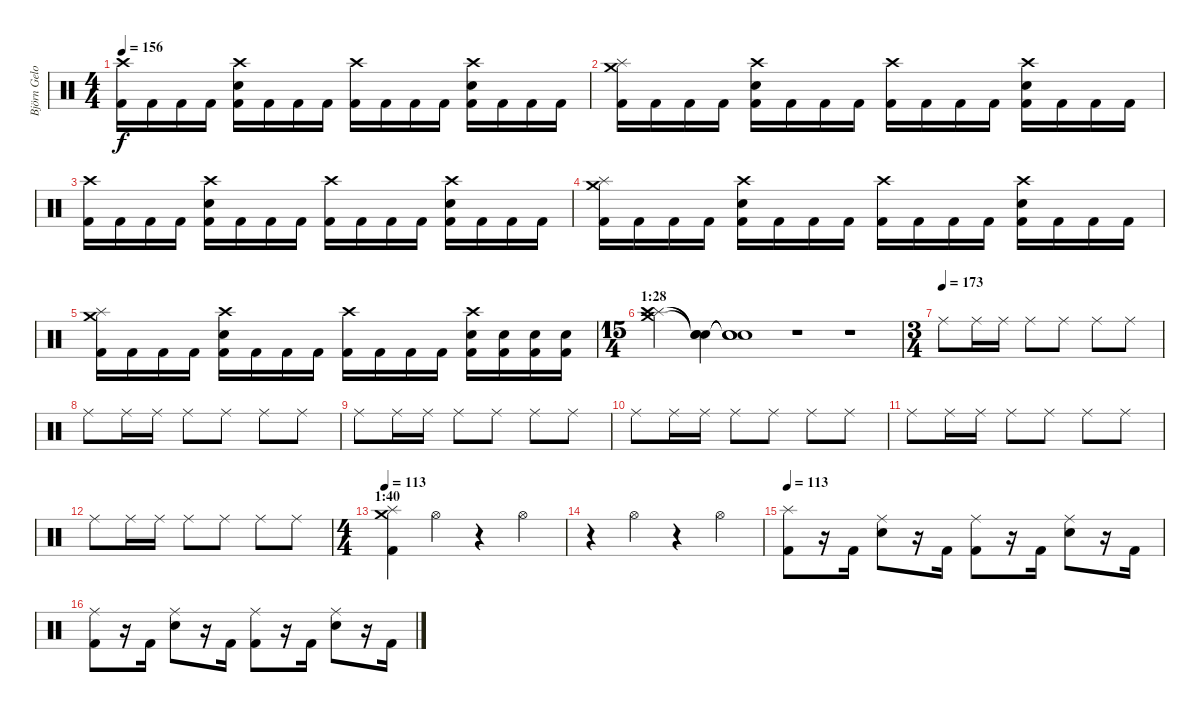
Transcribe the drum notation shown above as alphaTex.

\track ("Björn Gelotte" "Björn Gelo") {instrument percussion}
\staff {score}
\articulation defaults
\ts (4 4)
\tempo 156
\clef neutral
\ks c
("Crash high (hit)" "Kick (hit) 2").16{dy f} "Kick (hit) 2".16 "Kick (hit) 2".16 "Kick (hit) 2".16 ("Crash high (hit)" "Electric Snare (hit)" "Kick (hit) 2").16 "Kick (hit) 2".16 "Kick (hit) 2".16 "Kick (hit) 2".16 ("Crash high (hit)" "Kick (hit) 2").16 "Kick (hit) 2".16 "Kick (hit) 2".16 "Kick (hit) 2".16 ("Crash high (hit)" "Electric Snare (hit)" "Kick (hit) 2").16 "Kick (hit) 2".16 "Kick (hit) 2".16 "Kick (hit) 2".16 |
("Crash medium (hit)" "Splash (hit)" "Kick (hit) 2").16 "Kick (hit) 2".16 "Kick (hit) 2".16 "Kick (hit) 2".16 ("Crash high (hit)" "Electric Snare (hit)" "Kick (hit) 2").16 "Kick (hit) 2".16 "Kick (hit) 2".16 "Kick (hit) 2".16 ("Crash high (hit)" "Kick (hit) 2").16 "Kick (hit) 2".16 "Kick (hit) 2".16 "Kick (hit) 2".16 ("Crash high (hit)" "Electric Snare (hit)" "Kick (hit) 2").16 "Kick (hit) 2".16 "Kick (hit) 2".16 "Kick (hit) 2".16 |
("Crash high (hit)" "Kick (hit) 2").16 "Kick (hit) 2".16 "Kick (hit) 2".16 "Kick (hit) 2".16 ("Crash high (hit)" "Electric Snare (hit)" "Kick (hit) 2").16 "Kick (hit) 2".16 "Kick (hit) 2".16 "Kick (hit) 2".16 ("Crash high (hit)" "Kick (hit) 2").16 "Kick (hit) 2".16 "Kick (hit) 2".16 "Kick (hit) 2".16 ("Crash high (hit)" "Electric Snare (hit)" "Kick (hit) 2").16 "Kick (hit) 2".16 "Kick (hit) 2".16 "Kick (hit) 2".16 |
("Crash medium (hit)" "Splash (hit)" "Kick (hit) 2").16 "Kick (hit) 2".16 "Kick (hit) 2".16 "Kick (hit) 2".16 ("Crash high (hit)" "Electric Snare (hit)" "Kick (hit) 2").16 "Kick (hit) 2".16 "Kick (hit) 2".16 "Kick (hit) 2".16 ("Crash high (hit)" "Kick (hit) 2").16 "Kick (hit) 2".16 "Kick (hit) 2".16 "Kick (hit) 2".16 ("Crash high (hit)" "Electric Snare (hit)" "Kick (hit) 2").16 "Kick (hit) 2".16 "Kick (hit) 2".16 "Kick (hit) 2".16 |
("Crash medium (hit)" "Splash (hit)" "Kick (hit) 2").16 "Kick (hit) 2".16 "Kick (hit) 2".16 "Kick (hit) 2".16 ("Crash high (hit)" "Electric Snare (hit)" "Kick (hit) 2").16 "Kick (hit) 2".16 "Kick (hit) 2".16 "Kick (hit) 2".16 ("Crash high (hit)" "Kick (hit) 2").16 "Kick (hit) 2".16 "Kick (hit) 2".16 "Kick (hit) 2".16 ("Crash high (hit)" "Electric Snare (hit)" "Kick (hit) 2").16 ("Electric Snare (hit)" "Kick (hit) 2").16 ("Electric Snare (hit)" "Kick (hit) 2").16 ("Electric Snare (hit)" "Kick (hit) 2").16 |
\ts (15 4)
\section ("" "1:28")
("Splash (hit)" "Crash medium (hit)" "Crash high (hit)").2 ("Snare (hit)"{t} "Snare (hit)"{t} "Snare (hit)"{t}).4 ("Snare (hit)"{t} "Snare (hit)"{t} "Snare (hit)"{t}).1 r.1 r.1 |
\ts (3 4)
\tempo (173)
"Ride (middle)".8 "Ride (middle)".16 "Ride (middle)".16 "Ride (middle)".8 "Ride (middle)".8 "Ride (middle)".8 "Ride (middle)".8 |
"Ride (middle)".8 "Ride (middle)".16 "Ride (middle)".16 "Ride (middle)".8 "Ride (middle)".8 "Ride (middle)".8 "Ride (middle)".8 |
"Ride (middle)".8 "Ride (middle)".16 "Ride (middle)".16 "Ride (middle)".8 "Ride (middle)".8 "Ride (middle)".8 "Ride (middle)".8 |
"Ride (middle)".8 "Ride (middle)".16 "Ride (middle)".16 "Ride (middle)".8 "Ride (middle)".8 "Ride (middle)".8 "Ride (middle)".8 |
"Ride (middle)".8 "Ride (middle)".16 "Ride (middle)".16 "Ride (middle)".8 "Ride (middle)".8 "Ride (middle)".8 "Ride (middle)".8 |
"Ride (middle)".8 "Ride (middle)".16 "Ride (middle)".16 "Ride (middle)".8 "Ride (middle)".8 "Ride (middle)".8 "Ride (middle)".8 |
\ts (4 4)
\section ("" "1:40")
\tempo 113
("Splash (hit)" "Crash medium (hit)" "Kick (hit) 2").4 "Hi-Hat (open)".4 r.4 "Hi-Hat (open)".4 |
r.4 "Hi-Hat (open)".4 r.4 "Hi-Hat (open)".4 |
\tempo 113
("Splash (hit)" "Kick (hit) 2").8 r.16 "Kick (hit) 2".16 ("Ride (middle)" "Electric Snare (hit)").8 r.16 "Kick (hit) 2".16 ("Ride (middle)" "Kick (hit) 2").8 r.16 "Kick (hit) 2".16 ("Ride (middle)" "Electric Snare (hit)").8 r.16 "Kick (hit) 2".16 |
("Ride (middle)" "Kick (hit) 2").8 r.16 "Kick (hit) 2".16 ("Ride (middle)" "Electric Snare (hit)").8 r.16 "Kick (hit) 2".16 ("Ride (middle)" "Kick (hit) 2").8 r.16 "Kick (hit) 2".16 ("Ride (middle)" "Electric Snare (hit)").8 r.16 "Kick (hit) 2".16
